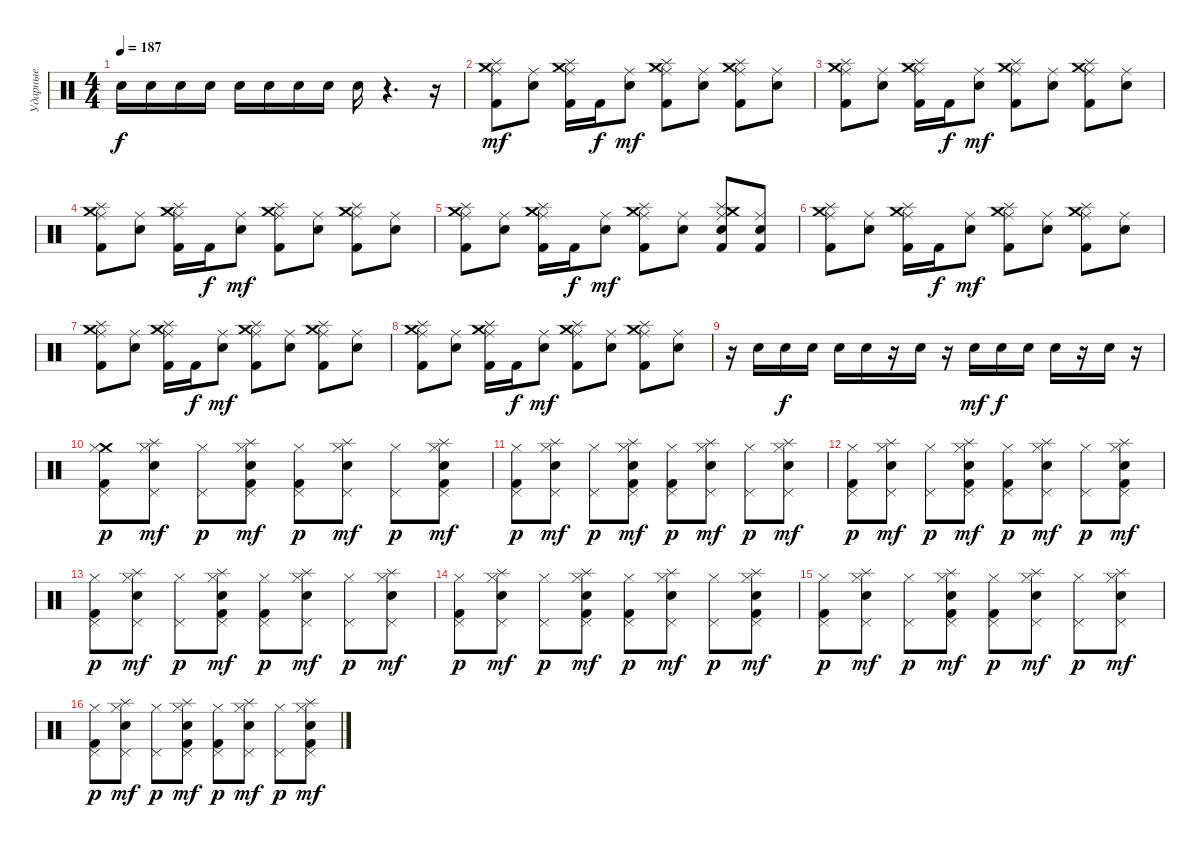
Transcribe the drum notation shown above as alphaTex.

\track ("Ударные" "Ударные") {instrument percussion}
\staff {score}
\articulation defaults
\ts (4 4)
\tempo 187
\clef neutral
\ks c "Electric Snare (hit)".16{dy f} "Electric Snare (hit)".16 "Electric Snare (hit)".16 "Electric Snare (hit)".16 "Electric Snare (hit)".16 "Electric Snare (hit)".16 "Electric Snare (hit)".16 "Electric Snare (hit)".16 "Electric Snare (hit)".16
r.4{d} r.16 |
("Ride (middle)" "Crash medium (hit)" "Splash (hit)" "Kick (hit) 2").8{dy mf} ("Ride (middle)" "Electric Snare (hit)").8 ("Ride (middle)" "Crash medium (hit)" "Splash (hit)" "Kick (hit) 2").16 "Kick (hit) 2".16{dy f} ("Ride (middle)" "Electric Snare (hit)").8{dy mf} ("Ride (middle)" "Crash medium (hit)" "Splash (hit)" "Kick (hit) 2").8 ("Ride (middle)" "Electric Snare (hit)").8 ("Ride (middle)" "Crash medium (hit)" "Splash (hit)" "Kick (hit) 2").8 ("Ride (middle)" "Electric Snare (hit)").8 |
("Ride (middle)" "Crash medium (hit)" "Splash (hit)" "Kick (hit) 2").8 ("Ride (middle)" "Electric Snare (hit)").8 ("Ride (middle)" "Crash medium (hit)" "Splash (hit)" "Kick (hit) 2").16 "Kick (hit) 2".16{dy f} ("Ride (middle)" "Electric Snare (hit)").8{dy mf} ("Ride (middle)" "Crash medium (hit)" "Splash (hit)" "Kick (hit) 2").8 ("Ride (middle)" "Electric Snare (hit)").8 ("Ride (middle)" "Crash medium (hit)" "Splash (hit)" "Kick (hit) 2").8 ("Ride (middle)" "Electric Snare (hit)").8 |
("Ride (middle)" "Crash medium (hit)" "Splash (hit)" "Kick (hit) 2").8 ("Ride (middle)" "Electric Snare (hit)").8 ("Ride (middle)" "Crash medium (hit)" "Splash (hit)" "Kick (hit) 2").16 "Kick (hit) 2".16{dy f} ("Ride (middle)" "Electric Snare (hit)").8{dy mf} ("Ride (middle)" "Crash medium (hit)" "Splash (hit)" "Kick (hit) 2").8 ("Ride (middle)" "Electric Snare (hit)").8 ("Ride (middle)" "Crash medium (hit)" "Splash (hit)" "Kick (hit) 2").8 ("Ride (middle)" "Electric Snare (hit)").8 |
("Ride (middle)" "Crash medium (hit)" "Splash (hit)" "Kick (hit) 2").8 ("Ride (middle)" "Electric Snare (hit)").8 ("Ride (middle)" "Crash medium (hit)" "Splash (hit)" "Kick (hit) 2").16 "Kick (hit) 2".16{dy f} ("Ride (middle)" "Electric Snare (hit)").8{dy mf} ("Ride (middle)" "Crash medium (hit)" "Splash (hit)" "Kick (hit) 2").8 ("Ride (middle)" "Electric Snare (hit)").8 ("Kick (hit) 2" "Ride (middle)" "Crash medium (hit)" "Splash (hit)" "Electric Snare (hit)").8 ("Kick (hit) 2" "Ride (middle)" "Electric Snare (hit)").8 |
("Ride (middle)" "Crash medium (hit)" "Splash (hit)" "Kick (hit) 2").8 ("Ride (middle)" "Electric Snare (hit)").8 ("Ride (middle)" "Crash medium (hit)" "Splash (hit)" "Kick (hit) 2").16 "Kick (hit) 2".16{dy f} ("Ride (middle)" "Electric Snare (hit)").8{dy mf} ("Ride (middle)" "Crash medium (hit)" "Splash (hit)" "Kick (hit) 2").8 ("Ride (middle)" "Electric Snare (hit)").8 ("Ride (middle)" "Crash medium (hit)" "Splash (hit)" "Kick (hit) 2").8 ("Ride (middle)" "Electric Snare (hit)").8 |
("Ride (middle)" "Crash medium (hit)" "Splash (hit)" "Kick (hit) 2").8 ("Ride (middle)" "Electric Snare (hit)").8 ("Ride (middle)" "Crash medium (hit)" "Splash (hit)" "Kick (hit) 2").16 "Kick (hit) 2".16{dy f} ("Ride (middle)" "Electric Snare (hit)").8{dy mf} ("Ride (middle)" "Crash medium (hit)" "Splash (hit)" "Kick (hit) 2").8 ("Ride (middle)" "Electric Snare (hit)").8 ("Ride (middle)" "Crash medium (hit)" "Splash (hit)" "Kick (hit) 2").8 ("Ride (middle)" "Electric Snare (hit)").8 |
("Ride (middle)" "Crash medium (hit)" "Splash (hit)" "Kick (hit) 2").8 ("Ride (middle)" "Electric Snare (hit)").8 ("Ride (middle)" "Crash medium (hit)" "Splash (hit)" "Kick (hit) 2").16 "Kick (hit) 2".16{dy f} ("Ride (middle)" "Electric Snare (hit)").8{dy mf} ("Ride (middle)" "Crash medium (hit)" "Splash (hit)" "Kick (hit) 2").8 ("Ride (middle)" "Electric Snare (hit)").8 ("Ride (middle)" "Crash medium (hit)" "Splash (hit)" "Kick (hit) 2").8 ("Ride (middle)" "Electric Snare (hit)").8 |
r.16 "Electric Snare (hit)".16 "Electric Snare (hit)".16{dy f} "Electric Snare (hit)".16 "Electric Snare (hit)".16 "Electric Snare (hit)".16 r.16 "Electric Snare (hit)".16 r.16 "Electric Snare (hit)".16{dy mf} "Electric Snare (hit)".16{dy f} "Electric Snare (hit)".16 "Electric Snare (hit)".16 r.16 "Electric Snare (hit)".16 r.16 |
("Crash medium (hit)" "Pedal Hi-Hat (hit)" "Hi-Hat (closed)" "Kick (hit) 2").8{dy p} ("Splash (hit)" "Pedal Hi-Hat (hit)" "Hi-Hat (closed)" "Electric Snare (hit)").8{dy mf} ("Pedal Hi-Hat (hit)" "Hi-Hat (closed)").8{dy p} ("Splash (hit)" "Pedal Hi-Hat (hit)" "Hi-Hat (closed)" "Electric Snare (hit)" "Kick (hit) 2").8{dy mf} ("Pedal Hi-Hat (hit)" "Hi-Hat (closed)" "Kick (hit) 2").8{dy p} ("Splash (hit)" "Pedal Hi-Hat (hit)" "Hi-Hat (closed)" "Electric Snare (hit)").8{dy mf} ("Pedal Hi-Hat (hit)" "Hi-Hat (closed)").8{dy p} ("Splash (hit)" "Pedal Hi-Hat (hit)" "Hi-Hat (closed)" "Kick (hit) 2" "Electric Snare (hit)").8{dy mf} |
("Pedal Hi-Hat (hit)" "Hi-Hat (closed)" "Kick (hit) 2").8{dy p} ("Splash (hit)" "Pedal Hi-Hat (hit)" "Hi-Hat (closed)" "Electric Snare (hit)").8{dy mf} ("Pedal Hi-Hat (hit)" "Hi-Hat (closed)").8{dy p} ("Splash (hit)" "Pedal Hi-Hat (hit)" "Hi-Hat (closed)" "Electric Snare (hit)" "Kick (hit) 2").8{dy mf} ("Pedal Hi-Hat (hit)" "Hi-Hat (closed)" "Kick (hit) 2").8{dy p} ("Splash (hit)" "Pedal Hi-Hat (hit)" "Hi-Hat (closed)" "Electric Snare (hit)").8{dy mf} ("Pedal Hi-Hat (hit)" "Hi-Hat (closed)").8{dy p} ("Splash (hit)" "Pedal Hi-Hat (hit)" "Hi-Hat (closed)" "Electric Snare (hit)").8{dy mf} |
("Pedal Hi-Hat (hit)" "Hi-Hat (closed)" "Kick (hit) 2").8{dy p} ("Splash (hit)" "Pedal Hi-Hat (hit)" "Hi-Hat (closed)" "Electric Snare (hit)").8{dy mf} ("Pedal Hi-Hat (hit)" "Hi-Hat (closed)").8{dy p} ("Splash (hit)" "Pedal Hi-Hat (hit)" "Hi-Hat (closed)" "Electric Snare (hit)" "Kick (hit) 2").8{dy mf} ("Pedal Hi-Hat (hit)" "Hi-Hat (closed)" "Kick (hit) 2").8{dy p} ("Splash (hit)" "Pedal Hi-Hat (hit)" "Hi-Hat (closed)" "Electric Snare (hit)").8{dy mf} ("Pedal Hi-Hat (hit)" "Hi-Hat (closed)").8{dy p} ("Splash (hit)" "Pedal Hi-Hat (hit)" "Hi-Hat (closed)" "Kick (hit) 2" "Electric Snare (hit)").8{dy mf} |
("Pedal Hi-Hat (hit)" "Hi-Hat (closed)" "Kick (hit) 2").8{dy p} ("Splash (hit)" "Pedal Hi-Hat (hit)" "Hi-Hat (closed)" "Electric Snare (hit)").8{dy mf} ("Pedal Hi-Hat (hit)" "Hi-Hat (closed)").8{dy p} ("Splash (hit)" "Pedal Hi-Hat (hit)" "Hi-Hat (closed)" "Electric Snare (hit)" "Kick (hit) 2").8{dy mf} ("Pedal Hi-Hat (hit)" "Hi-Hat (closed)" "Kick (hit) 2").8{dy p} ("Splash (hit)" "Pedal Hi-Hat (hit)" "Hi-Hat (closed)" "Electric Snare (hit)").8{dy mf} ("Pedal Hi-Hat (hit)" "Hi-Hat (closed)").8{dy p} ("Splash (hit)" "Pedal Hi-Hat (hit)" "Hi-Hat (closed)" "Electric Snare (hit)").8{dy mf} |
("Pedal Hi-Hat (hit)" "Hi-Hat (closed)" "Kick (hit) 2").8{dy p} ("Splash (hit)" "Pedal Hi-Hat (hit)" "Hi-Hat (closed)" "Electric Snare (hit)").8{dy mf} ("Pedal Hi-Hat (hit)" "Hi-Hat (closed)").8{dy p} ("Splash (hit)" "Pedal Hi-Hat (hit)" "Hi-Hat (closed)" "Electric Snare (hit)" "Kick (hit) 2").8{dy mf} ("Pedal Hi-Hat (hit)" "Hi-Hat (closed)" "Kick (hit) 2").8{dy p} ("Splash (hit)" "Pedal Hi-Hat (hit)" "Hi-Hat (closed)" "Electric Snare (hit)").8{dy mf} ("Pedal Hi-Hat (hit)" "Hi-Hat (closed)").8{dy p} ("Splash (hit)" "Pedal Hi-Hat (hit)" "Hi-Hat (closed)" "Kick (hit) 2" "Electric Snare (hit)").8{dy mf} |
("Pedal Hi-Hat (hit)" "Hi-Hat (closed)" "Kick (hit) 2").8{dy p} ("Splash (hit)" "Pedal Hi-Hat (hit)" "Hi-Hat (closed)" "Electric Snare (hit)").8{dy mf} ("Pedal Hi-Hat (hit)" "Hi-Hat (closed)").8{dy p} ("Splash (hit)" "Pedal Hi-Hat (hit)" "Hi-Hat (closed)" "Electric Snare (hit)" "Kick (hit) 2").8{dy mf} ("Pedal Hi-Hat (hit)" "Hi-Hat (closed)" "Kick (hit) 2").8{dy p} ("Splash (hit)" "Pedal Hi-Hat (hit)" "Hi-Hat (closed)" "Electric Snare (hit)").8{dy mf} ("Pedal Hi-Hat (hit)" "Hi-Hat (closed)").8{dy p} ("Splash (hit)" "Pedal Hi-Hat (hit)" "Hi-Hat (closed)" "Electric Snare (hit)").8{dy mf} |
("Pedal Hi-Hat (hit)" "Hi-Hat (closed)" "Kick (hit) 2").8{dy p} ("Splash (hit)" "Pedal Hi-Hat (hit)" "Hi-Hat (closed)" "Electric Snare (hit)").8{dy mf} ("Pedal Hi-Hat (hit)" "Hi-Hat (closed)").8{dy p} ("Splash (hit)" "Pedal Hi-Hat (hit)" "Hi-Hat (closed)" "Electric Snare (hit)" "Kick (hit) 2").8{dy mf} ("Pedal Hi-Hat (hit)" "Hi-Hat (closed)" "Kick (hit) 2").8{dy p} ("Splash (hit)" "Pedal Hi-Hat (hit)" "Hi-Hat (closed)" "Electric Snare (hit)").8{dy mf} ("Pedal Hi-Hat (hit)" "Hi-Hat (closed)").8{dy p} ("Splash (hit)" "Pedal Hi-Hat (hit)" "Hi-Hat (closed)" "Kick (hit) 2" "Electric Snare (hit)").8{dy mf}
